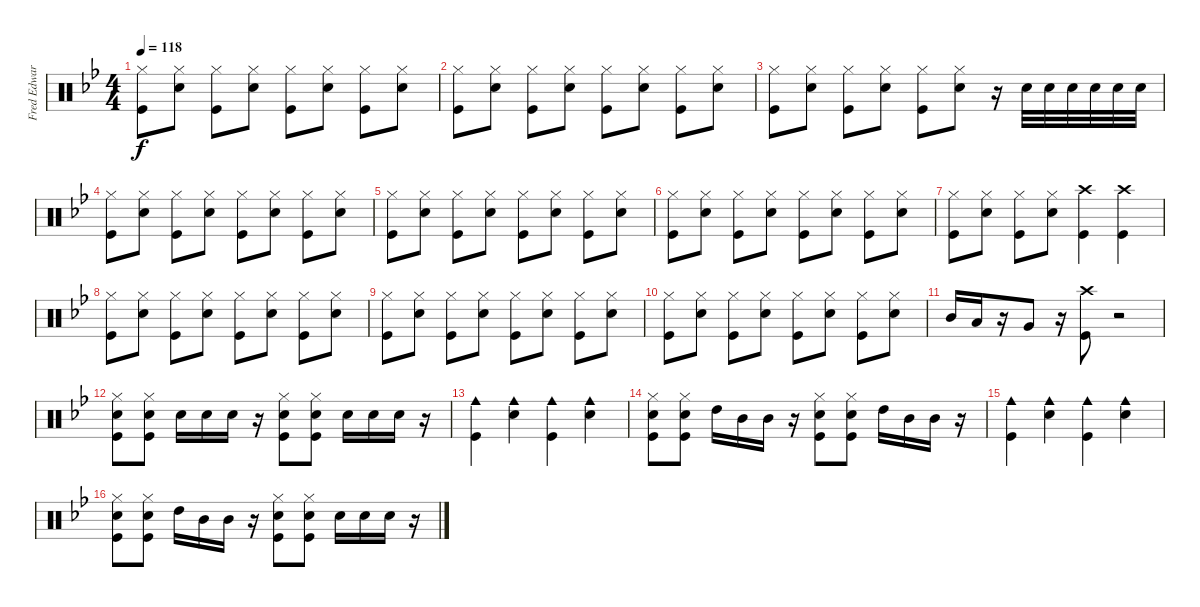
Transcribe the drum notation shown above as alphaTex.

\track ("Fred Edwards Drums" "Fred Edwar") {instrument percussion}
\staff {score}
\articulation defaults
\ts (4 4)
\tempo 118
\clef neutral
\ks gminor
("Hi-Hat (closed)" "Kick (hit)").8{dy f} ("Hi-Hat (closed)" "Snare (hit) 2").8 ("Hi-Hat (closed)" "Kick (hit)").8 ("Hi-Hat (closed)" "Snare (hit) 2").8 ("Hi-Hat (closed)" "Kick (hit)").8 ("Hi-Hat (closed)" "Snare (hit) 2").8 ("Hi-Hat (closed)" "Kick (hit)").8 ("Hi-Hat (closed)" "Snare (hit) 2").8 |
("Hi-Hat (closed)" "Kick (hit)").8 ("Hi-Hat (closed)" "Snare (hit) 2").8 ("Hi-Hat (closed)" "Kick (hit)").8 ("Hi-Hat (closed)" "Snare (hit) 2").8 ("Hi-Hat (closed)" "Kick (hit)").8 ("Hi-Hat (closed)" "Snare (hit) 2").8 ("Hi-Hat (closed)" "Kick (hit)").8 ("Hi-Hat (closed)" "Snare (hit) 2").8 |
("Hi-Hat (closed)" "Kick (hit)").8 ("Hi-Hat (closed)" "Snare (hit) 2").8 ("Hi-Hat (closed)" "Kick (hit)").8 ("Hi-Hat (closed)" "Snare (hit) 2").8 ("Hi-Hat (closed)" "Kick (hit)").8 ("Hi-Hat (closed)" "Snare (hit) 2").8 r.16 "Snare (hit) 2".32 "Snare (hit) 2".32 "Snare (hit) 2".32 "Snare (hit) 2".32 "Snare (hit) 2".32 "Snare (hit) 2".32 |
("Hi-Hat (closed)" "Kick (hit)").8 ("Hi-Hat (closed)" "Snare (hit) 2").8 ("Hi-Hat (closed)" "Kick (hit)").8 ("Hi-Hat (closed)" "Snare (hit) 2").8 ("Hi-Hat (closed)" "Kick (hit)").8 ("Hi-Hat (closed)" "Snare (hit) 2").8 ("Hi-Hat (closed)" "Kick (hit)").8 ("Hi-Hat (closed)" "Snare (hit) 2").8 |
("Hi-Hat (closed)" "Kick (hit)").8 ("Hi-Hat (closed)" "Snare (hit) 2").8 ("Hi-Hat (closed)" "Kick (hit)").8 ("Hi-Hat (closed)" "Snare (hit) 2").8 ("Hi-Hat (closed)" "Kick (hit)").8 ("Hi-Hat (closed)" "Snare (hit) 2").8 ("Hi-Hat (closed)" "Kick (hit)").8 ("Hi-Hat (closed)" "Snare (hit) 2").8 |
("Hi-Hat (closed)" "Kick (hit)").8 ("Hi-Hat (closed)" "Snare (hit) 2").8 ("Hi-Hat (closed)" "Kick (hit)").8 ("Hi-Hat (closed)" "Snare (hit) 2").8 ("Hi-Hat (closed)" "Kick (hit)").8 ("Hi-Hat (closed)" "Snare (hit) 2").8 ("Hi-Hat (closed)" "Kick (hit)").8 ("Hi-Hat (closed)" "Snare (hit) 2").8 |
("Hi-Hat (closed)" "Kick (hit)").8 ("Hi-Hat (closed)" "Snare (hit) 2").8 ("Hi-Hat (closed)" "Kick (hit)").8 ("Hi-Hat (closed)" "Snare (hit) 2").8 ("Crash high (hit)" "Kick (hit)").4 ("Crash high (hit)" "Kick (hit)").4 |
("Hi-Hat (closed)" "Kick (hit)").8 ("Hi-Hat (closed)" "Snare (hit) 2").8 ("Hi-Hat (closed)" "Kick (hit)").8 ("Hi-Hat (closed)" "Snare (hit) 2").8 ("Hi-Hat (closed)" "Kick (hit)").8 ("Hi-Hat (closed)" "Snare (hit) 2").8 ("Hi-Hat (closed)" "Kick (hit)").8 ("Hi-Hat (closed)" "Snare (hit) 2").8 |
("Hi-Hat (closed)" "Kick (hit)").8 ("Hi-Hat (closed)" "Snare (hit) 2").8 ("Hi-Hat (closed)" "Kick (hit)").8 ("Hi-Hat (closed)" "Snare (hit) 2").8 ("Hi-Hat (closed)" "Kick (hit)").8 ("Hi-Hat (closed)" "Snare (hit) 2").8 ("Hi-Hat (closed)" "Kick (hit)").8 ("Hi-Hat (closed)" "Snare (hit) 2").8 |
("Hi-Hat (closed)" "Kick (hit)").8 ("Hi-Hat (closed)" "Snare (hit) 2").8 ("Hi-Hat (closed)" "Kick (hit)").8 ("Hi-Hat (closed)" "Snare (hit) 2").8 ("Hi-Hat (closed)" "Kick (hit)").8 ("Hi-Hat (closed)" "Snare (hit) 2").8 ("Hi-Hat (closed)" "Kick (hit)").8 ("Hi-Hat (closed)" "Snare (hit) 2").8 |
"Mid Tom (hit)".16 "Low Tom (hit)".16 r.16 "Very Low Tom (hit)".8 r.16 ("Crash high (hit)" "Kick (hit)").8 r.2 |
("Hi-Hat (closed)" "Snare (hit) 2" "Kick (hit)").8 ("Hi-Hat (closed)" "Snare (hit) 2" "Kick (hit)").8 "Snare (hit) 2".16 "Snare (hit) 2".16 "Snare (hit) 2".16 r.16 ("Hi-Hat (closed)" "Snare (hit) 2" "Kick (hit)").8 ("Hi-Hat (closed)" "Snare (hit) 2" "Kick (hit)").8 "Snare (hit) 2".16 "Snare (hit) 2".16 "Snare (hit) 2".16 r.16 |
("Cowbell medium (hit)" "Kick (hit)").4 ("Cowbell medium (hit)" "Snare (hit) 2").4 ("Cowbell medium (hit)" "Kick (hit)").4 ("Cowbell medium (hit)" "Snare (hit) 2").4 |
("Hi-Hat (closed)" "Snare (hit) 2" "Kick (hit)").8 ("Hi-Hat (closed)" "Snare (hit) 2" "Kick (hit)").8 "High Tom (hit)".16 "Mid Tom (hit)".16 "Mid Tom (hit)".16 r.16 ("Hi-Hat (closed)" "Snare (hit) 2" "Kick (hit)").8 ("Hi-Hat (closed)" "Snare (hit) 2" "Kick (hit)").8 "High Tom (hit)".16 "Mid Tom (hit)".16 "Mid Tom (hit)".16 r.16 |
("Cowbell medium (hit)" "Kick (hit)").4 ("Cowbell medium (hit)" "Snare (hit) 2").4 ("Cowbell medium (hit)" "Kick (hit)").4 ("Cowbell medium (hit)" "Snare (hit) 2").4 |
("Hi-Hat (closed)" "Snare (hit) 2" "Kick (hit)").8 ("Hi-Hat (closed)" "Snare (hit) 2" "Kick (hit)").8 "High Tom (hit)".16 "Mid Tom (hit)".16 "Mid Tom (hit)".16 r.16 ("Hi-Hat (closed)" "Snare (hit) 2" "Kick (hit)").8 ("Hi-Hat (closed)" "Snare (hit) 2" "Kick (hit)").8 "Snare (hit) 2".16 "Snare (hit) 2".16 "Snare (hit) 2".16 r.16
